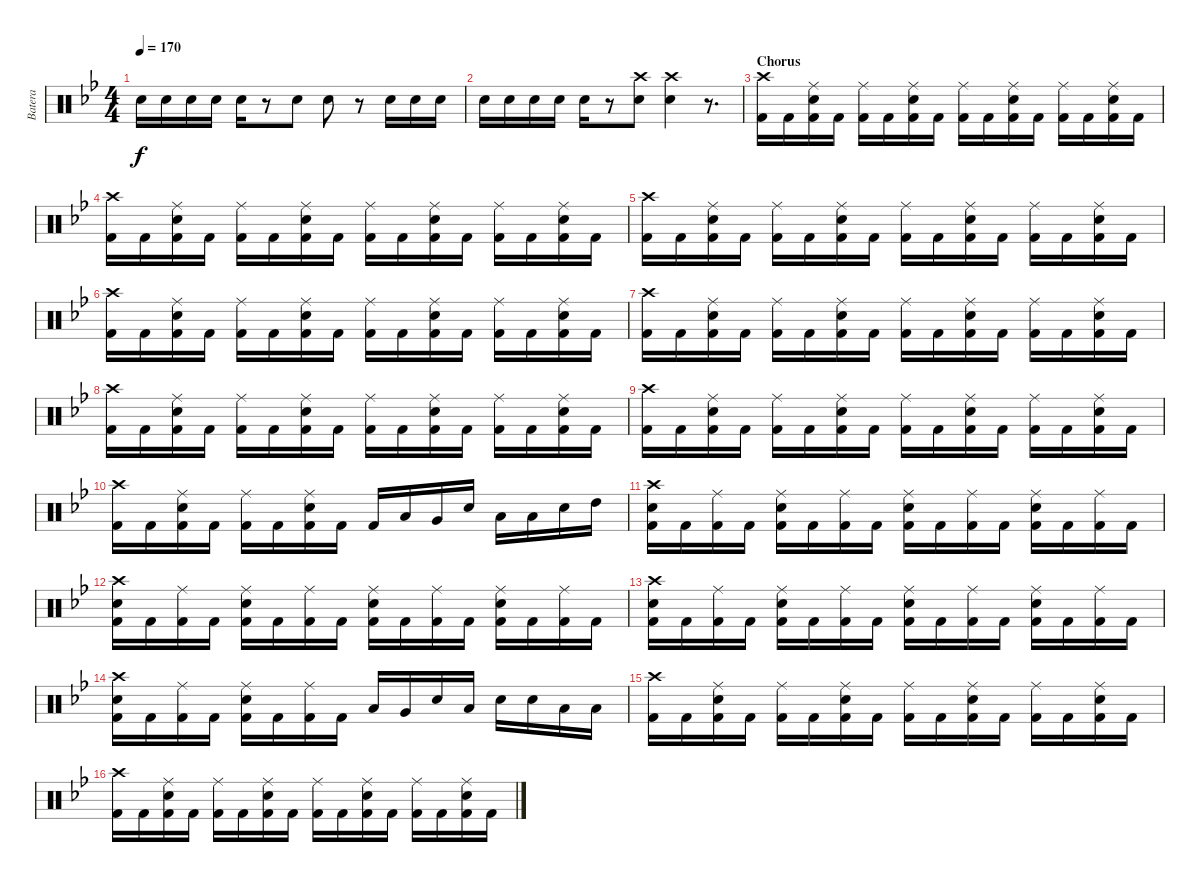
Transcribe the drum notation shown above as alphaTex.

\track ("Batera" "Batera") {instrument percussion}
\staff {score}
\articulation defaults
\ts (4 4)
\tempo 170
\clef neutral
\ks bb "Electric Snare (hit)".16{dy f} "Electric Snare (hit)".16 "Electric Snare (hit)".16 "Electric Snare (hit)".16 "Electric Snare (hit)".16
r.8 "Electric Snare (hit)".8 "Electric Snare (hit)".8 r.8 "Electric Snare (hit)".16 "Electric Snare (hit)".16 "Electric Snare (hit)".16 |
"Electric Snare (hit)".16 "Electric Snare (hit)".16 "Electric Snare (hit)".16 "Electric Snare (hit)".16 "Electric Snare (hit)".16 r.8 ("Crash high (hit)" "Electric Snare (hit)").8 ("Crash high (hit)" "Electric Snare (hit)").4 r.8{d} |
\section ("" "Chorus")
("Crash high (hit)" "Kick (hit) 2").16 "Kick (hit) 2".16 ("Ride (middle)" "Electric Snare (hit)" "Kick (hit) 2").16 "Kick (hit) 2".16 ("Ride (middle)" "Kick (hit) 2").16 "Kick (hit) 2".16 ("Ride (middle)" "Electric Snare (hit)" "Kick (hit) 2").16 "Kick (hit) 2".16 ("Ride (middle)" "Kick (hit) 2").16 "Kick (hit) 2".16 ("Ride (middle)" "Electric Snare (hit)" "Kick (hit) 2").16 "Kick (hit) 2".16 ("Ride (middle)" "Kick (hit) 2").16 "Kick (hit) 2".16 ("Ride (middle)" "Electric Snare (hit)" "Kick (hit) 2").16 "Kick (hit) 2".16 |
("Crash high (hit)" "Kick (hit) 2").16 "Kick (hit) 2".16 ("Ride (middle)" "Electric Snare (hit)" "Kick (hit) 2").16 "Kick (hit) 2".16 ("Ride (middle)" "Kick (hit) 2").16 "Kick (hit) 2".16 ("Ride (middle)" "Electric Snare (hit)" "Kick (hit) 2").16 "Kick (hit) 2".16 ("Ride (middle)" "Kick (hit) 2").16 "Kick (hit) 2".16 ("Ride (middle)" "Electric Snare (hit)" "Kick (hit) 2").16 "Kick (hit) 2".16 ("Ride (middle)" "Kick (hit) 2").16 "Kick (hit) 2".16 ("Ride (middle)" "Electric Snare (hit)" "Kick (hit) 2").16 "Kick (hit) 2".16 |
("Crash high (hit)" "Kick (hit) 2").16 "Kick (hit) 2".16 ("Ride (middle)" "Electric Snare (hit)" "Kick (hit) 2").16 "Kick (hit) 2".16 ("Ride (middle)" "Kick (hit) 2").16 "Kick (hit) 2".16 ("Ride (middle)" "Electric Snare (hit)" "Kick (hit) 2").16 "Kick (hit) 2".16 ("Ride (middle)" "Kick (hit) 2").16 "Kick (hit) 2".16 ("Ride (middle)" "Electric Snare (hit)" "Kick (hit) 2").16 "Kick (hit) 2".16 ("Ride (middle)" "Kick (hit) 2").16 "Kick (hit) 2".16 ("Ride (middle)" "Electric Snare (hit)" "Kick (hit) 2").16 "Kick (hit) 2".16 |
("Crash high (hit)" "Kick (hit) 2").16 "Kick (hit) 2".16 ("Ride (middle)" "Electric Snare (hit)" "Kick (hit) 2").16 "Kick (hit) 2".16 ("Ride (middle)" "Kick (hit) 2").16 "Kick (hit) 2".16 ("Ride (middle)" "Electric Snare (hit)" "Kick (hit) 2").16 "Kick (hit) 2".16 ("Ride (middle)" "Kick (hit) 2").16 "Kick (hit) 2".16 ("Ride (middle)" "Electric Snare (hit)" "Kick (hit) 2").16 "Kick (hit) 2".16 ("Ride (middle)" "Kick (hit) 2").16 "Kick (hit) 2".16 ("Ride (middle)" "Electric Snare (hit)" "Kick (hit) 2").16 "Kick (hit) 2".16 |
("Crash high (hit)" "Kick (hit) 2").16 "Kick (hit) 2".16 ("Ride (middle)" "Electric Snare (hit)" "Kick (hit) 2").16 "Kick (hit) 2".16 ("Ride (middle)" "Kick (hit) 2").16 "Kick (hit) 2".16 ("Ride (middle)" "Electric Snare (hit)" "Kick (hit) 2").16 "Kick (hit) 2".16 ("Ride (middle)" "Kick (hit) 2").16 "Kick (hit) 2".16 ("Ride (middle)" "Electric Snare (hit)" "Kick (hit) 2").16 "Kick (hit) 2".16 ("Ride (middle)" "Kick (hit) 2").16 "Kick (hit) 2".16 ("Ride (middle)" "Electric Snare (hit)" "Kick (hit) 2").16 "Kick (hit) 2".16 |
("Crash high (hit)" "Kick (hit) 2").16 "Kick (hit) 2".16 ("Ride (middle)" "Electric Snare (hit)" "Kick (hit) 2").16 "Kick (hit) 2".16 ("Ride (middle)" "Kick (hit) 2").16 "Kick (hit) 2".16 ("Ride (middle)" "Electric Snare (hit)" "Kick (hit) 2").16 "Kick (hit) 2".16 ("Ride (middle)" "Kick (hit) 2").16 "Kick (hit) 2".16 ("Ride (middle)" "Electric Snare (hit)" "Kick (hit) 2").16 "Kick (hit) 2".16 ("Ride (middle)" "Kick (hit) 2").16 "Kick (hit) 2".16 ("Ride (middle)" "Electric Snare (hit)" "Kick (hit) 2").16 "Kick (hit) 2".16 |
("Crash high (hit)" "Kick (hit) 2").16 "Kick (hit) 2".16 ("Ride (middle)" "Electric Snare (hit)" "Kick (hit) 2").16 "Kick (hit) 2".16 ("Ride (middle)" "Kick (hit) 2").16 "Kick (hit) 2".16 ("Ride (middle)" "Electric Snare (hit)" "Kick (hit) 2").16 "Kick (hit) 2".16 ("Ride (middle)" "Kick (hit) 2").16 "Kick (hit) 2".16 ("Ride (middle)" "Electric Snare (hit)" "Kick (hit) 2").16 "Kick (hit) 2".16 ("Ride (middle)" "Kick (hit) 2").16 "Kick (hit) 2".16 ("Ride (middle)" "Electric Snare (hit)" "Kick (hit) 2").16 "Kick (hit) 2".16 |
("Crash high (hit)" "Kick (hit) 2").16 "Kick (hit) 2".16 ("Ride (middle)" "Electric Snare (hit)" "Kick (hit) 2").16 "Kick (hit) 2".16 ("Ride (middle)" "Kick (hit) 2").16 "Kick (hit) 2".16 ("Ride (middle)" "Electric Snare (hit)" "Kick (hit) 2").16 "Kick (hit) 2".16 "Kick (hit) 2".16 "Low Floor Tom (hit)".16 "Very Low Tom (hit)".16 "Electric Snare (hit)".16 "Low Floor Tom (hit)".16 "Low Tom (hit)".16 "Electric Snare (hit)".16 "High Tom (hit)".16 |
("Crash high (hit)" "Electric Snare (hit)" "Kick (hit) 2").16 "Kick (hit) 2".16 ("Ride (middle)" "Kick (hit) 2").16 "Kick (hit) 2".16 ("Ride (middle)" "Electric Snare (hit)" "Kick (hit) 2").16 "Kick (hit) 2".16 ("Ride (middle)" "Kick (hit) 2").16 "Kick (hit) 2".16 ("Ride (middle)" "Electric Snare (hit)" "Kick (hit) 2").16 "Kick (hit) 2".16 ("Ride (middle)" "Kick (hit) 2").16 "Kick (hit) 2".16 ("Ride (middle)" "Electric Snare (hit)" "Kick (hit) 2").16 "Kick (hit) 2".16 ("Ride (middle)" "Kick (hit) 2").16 "Kick (hit) 2".16 |
("Crash high (hit)" "Electric Snare (hit)" "Kick (hit) 2").16 "Kick (hit) 2".16 ("Ride (middle)" "Kick (hit) 2").16 "Kick (hit) 2".16 ("Ride (middle)" "Electric Snare (hit)" "Kick (hit) 2").16 "Kick (hit) 2".16 ("Ride (middle)" "Kick (hit) 2").16 "Kick (hit) 2".16 ("Ride (middle)" "Electric Snare (hit)" "Kick (hit) 2").16 "Kick (hit) 2".16 ("Ride (middle)" "Kick (hit) 2").16 "Kick (hit) 2".16 ("Ride (middle)" "Electric Snare (hit)" "Kick (hit) 2").16 "Kick (hit) 2".16 ("Ride (middle)" "Kick (hit) 2").16 "Kick (hit) 2".16 |
("Crash high (hit)" "Electric Snare (hit)" "Kick (hit) 2").16 "Kick (hit) 2".16 ("Ride (middle)" "Kick (hit) 2").16 "Kick (hit) 2".16 ("Ride (middle)" "Electric Snare (hit)" "Kick (hit) 2").16 "Kick (hit) 2".16 ("Ride (middle)" "Kick (hit) 2").16 "Kick (hit) 2".16 ("Ride (middle)" "Electric Snare (hit)" "Kick (hit) 2").16 "Kick (hit) 2".16 ("Ride (middle)" "Kick (hit) 2").16 "Kick (hit) 2".16 ("Ride (middle)" "Electric Snare (hit)" "Kick (hit) 2").16 "Kick (hit) 2".16 ("Ride (middle)" "Kick (hit) 2").16 "Kick (hit) 2".16 |
("Crash high (hit)" "Electric Snare (hit)" "Kick (hit) 2").16 "Kick (hit) 2".16 ("Ride (middle)" "Kick (hit) 2").16 "Kick (hit) 2".16 ("Ride (middle)" "Electric Snare (hit)" "Kick (hit) 2").16 "Kick (hit) 2".16 ("Ride (middle)" "Kick (hit) 2").16 "Kick (hit) 2".16 "Low Floor Tom (hit)".16 "Very Low Tom (hit)".16 "Electric Snare (hit)".16 "Low Tom (hit)".16 "Electric Snare (hit)".16 "Electric Snare (hit)".16 "Low Floor Tom (hit)".16 "Low Tom (hit)".16 |
("Crash high (hit)" "Kick (hit) 2").16 "Kick (hit) 2".16 ("Ride (middle)" "Electric Snare (hit)" "Kick (hit) 2").16 "Kick (hit) 2".16 ("Ride (middle)" "Kick (hit) 2").16 "Kick (hit) 2".16 ("Ride (middle)" "Electric Snare (hit)" "Kick (hit) 2").16 "Kick (hit) 2".16 ("Ride (middle)" "Kick (hit) 2").16 "Kick (hit) 2".16 ("Ride (middle)" "Electric Snare (hit)" "Kick (hit) 2").16 "Kick (hit) 2".16 ("Ride (middle)" "Kick (hit) 2").16 "Kick (hit) 2".16 ("Ride (middle)" "Electric Snare (hit)" "Kick (hit) 2").16 "Kick (hit) 2".16 |
("Crash high (hit)" "Kick (hit) 2").16 "Kick (hit) 2".16 ("Ride (middle)" "Electric Snare (hit)" "Kick (hit) 2").16 "Kick (hit) 2".16 ("Ride (middle)" "Kick (hit) 2").16 "Kick (hit) 2".16 ("Ride (middle)" "Electric Snare (hit)" "Kick (hit) 2").16 "Kick (hit) 2".16 ("Ride (middle)" "Kick (hit) 2").16 "Kick (hit) 2".16 ("Ride (middle)" "Electric Snare (hit)" "Kick (hit) 2").16 "Kick (hit) 2".16 ("Ride (middle)" "Kick (hit) 2").16 "Kick (hit) 2".16 ("Ride (middle)" "Electric Snare (hit)" "Kick (hit) 2").16 "Kick (hit) 2".16
